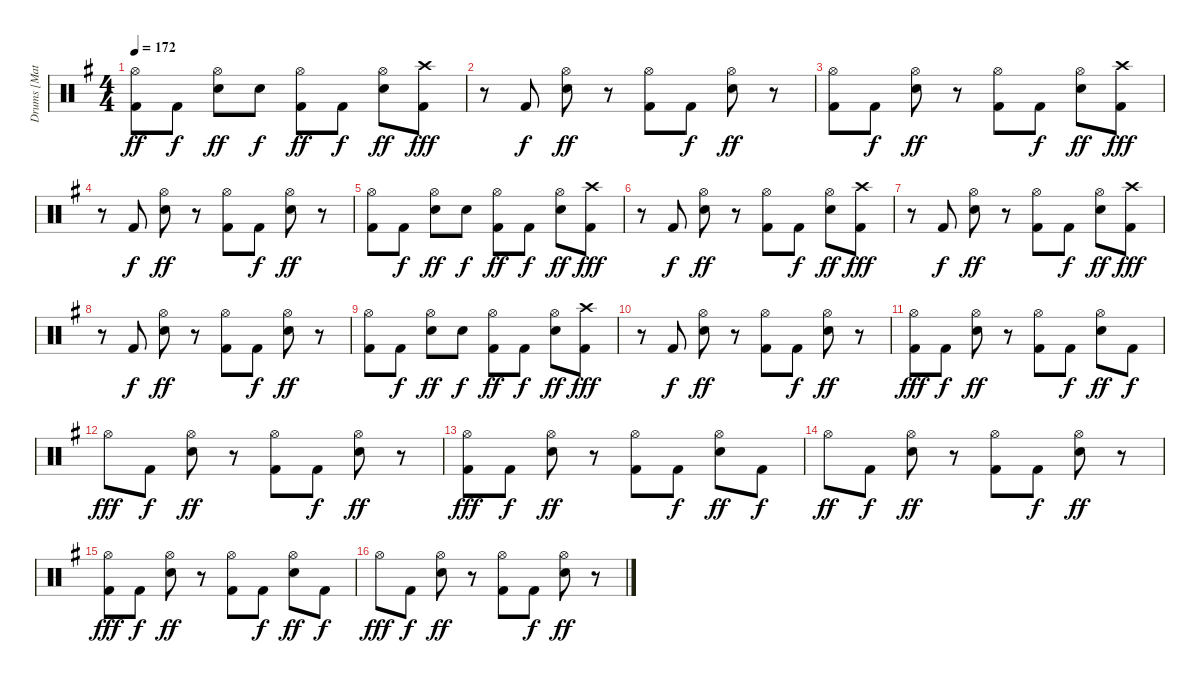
\track ("Drums [Matt]" "Drums [Mat") {instrument percussion}
\staff {score}
\articulation defaults
\ts (4 4)
\tempo 172
\clef neutral
\ks g
("Hi-Hat (open)" "Kick (hit) 2").8{dy ff} "Kick (hit) 2".8{dy f} ("Hi-Hat (open)" "Snare (hit) 2").8{dy ff} "Snare (hit) 2".8{dy f} ("Hi-Hat (open)" "Kick (hit) 2").8{dy ff} "Kick (hit) 2".8{dy f} ("Hi-Hat (open)" "Snare (hit) 2").8{dy ff} ("Kick (hit) 2" "Crash high (hit)").8{dy fff} |
r.8 "Kick (hit) 2".8{dy f} ("Hi-Hat (open)" "Snare (hit) 2").8{dy ff} r.8 ("Hi-Hat (open)" "Kick (hit) 2").8 "Kick (hit) 2".8{dy f} ("Hi-Hat (open)" "Snare (hit) 2").8{dy ff} r.8 |
("Hi-Hat (open)" "Kick (hit) 2").8 "Kick (hit) 2".8{dy f} ("Hi-Hat (open)" "Snare (hit) 2").8{dy ff} r.8 ("Hi-Hat (open)" "Kick (hit) 2").8 "Kick (hit) 2".8{dy f} ("Hi-Hat (open)" "Snare (hit) 2").8{dy ff} ("Kick (hit) 2" "Crash high (hit)").8{dy fff} |
r.8 "Kick (hit) 2".8{dy f} ("Hi-Hat (open)" "Snare (hit) 2").8{dy ff} r.8 ("Hi-Hat (open)" "Kick (hit) 2").8 "Kick (hit) 2".8{dy f} ("Hi-Hat (open)" "Snare (hit) 2").8{dy ff} r.8 |
("Hi-Hat (open)" "Kick (hit) 2").8 "Kick (hit) 2".8{dy f} ("Hi-Hat (open)" "Snare (hit) 2").8{dy ff} "Snare (hit) 2".8{dy f} ("Hi-Hat (open)" "Kick (hit) 2").8{dy ff} "Kick (hit) 2".8{dy f} ("Hi-Hat (open)" "Snare (hit) 2").8{dy ff} ("Kick (hit) 2" "Crash high (hit)").8{dy fff} |
r.8 "Kick (hit) 2".8{dy f} ("Hi-Hat (open)" "Snare (hit) 2").8{dy ff} r.8 ("Hi-Hat (open)" "Kick (hit) 2").8 "Kick (hit) 2".8{dy f} ("Hi-Hat (open)" "Snare (hit) 2").8{dy ff} ("Kick (hit) 2" "Crash high (hit)").8{dy fff} |
r.8 "Kick (hit) 2".8{dy f} ("Hi-Hat (open)" "Snare (hit) 2").8{dy ff} r.8 ("Hi-Hat (open)" "Kick (hit) 2").8 "Kick (hit) 2".8{dy f} ("Hi-Hat (open)" "Snare (hit) 2").8{dy ff} ("Kick (hit) 2" "Crash high (hit)").8{dy fff} |
r.8 "Kick (hit) 2".8{dy f} ("Hi-Hat (open)" "Snare (hit) 2").8{dy ff} r.8 ("Hi-Hat (open)" "Kick (hit) 2").8 "Kick (hit) 2".8{dy f} ("Hi-Hat (open)" "Snare (hit) 2").8{dy ff} r.8 |
("Hi-Hat (open)" "Kick (hit) 2").8 "Kick (hit) 2".8{dy f} ("Hi-Hat (open)" "Snare (hit) 2").8{dy ff} "Snare (hit) 2".8{dy f} ("Hi-Hat (open)" "Kick (hit) 2").8{dy ff} "Kick (hit) 2".8{dy f} ("Hi-Hat (open)" "Snare (hit) 2").8{dy ff} ("Kick (hit) 2" "Crash high (hit)").8{dy fff} |
r.8 "Kick (hit) 2".8{dy f} ("Hi-Hat (open)" "Snare (hit) 2").8{dy ff} r.8 ("Hi-Hat (open)" "Kick (hit) 2").8 "Kick (hit) 2".8{dy f} ("Hi-Hat (open)" "Snare (hit) 2").8{dy ff} r.8 |
("Hi-Hat (open)" "Kick (hit) 2").8{dy fff} "Kick (hit) 2".8{dy f} ("Hi-Hat (open)" "Snare (hit) 2").8{dy ff} r.8 ("Hi-Hat (open)" "Kick (hit) 2").8 "Kick (hit) 2".8{dy f} ("Hi-Hat (open)" "Snare (hit) 2").8{dy ff} "Kick (hit) 2".8{dy f} |
"Hi-Hat (open)".8{dy fff} "Kick (hit) 2".8{dy f} ("Hi-Hat (open)" "Snare (hit) 2").8{dy ff} r.8 ("Hi-Hat (open)" "Kick (hit) 2").8 "Kick (hit) 2".8{dy f} ("Hi-Hat (open)" "Snare (hit) 2").8{dy ff} r.8 |
("Hi-Hat (open)" "Kick (hit) 2").8{dy fff} "Kick (hit) 2".8{dy f} ("Hi-Hat (open)" "Snare (hit) 2").8{dy ff} r.8 ("Hi-Hat (open)" "Kick (hit) 2").8 "Kick (hit) 2".8{dy f} ("Hi-Hat (open)" "Snare (hit) 2").8{dy ff} "Kick (hit) 2".8{dy f} |
"Hi-Hat (open)".8{dy ff} "Kick (hit) 2".8{dy f} ("Hi-Hat (open)" "Snare (hit) 2").8{dy ff} r.8 ("Hi-Hat (open)" "Kick (hit) 2").8 "Kick (hit) 2".8{dy f} ("Hi-Hat (open)" "Snare (hit) 2").8{dy ff} r.8 |
("Hi-Hat (open)" "Kick (hit) 2").8{dy fff} "Kick (hit) 2".8{dy f} ("Hi-Hat (open)" "Snare (hit) 2").8{dy ff} r.8 ("Hi-Hat (open)" "Kick (hit) 2").8 "Kick (hit) 2".8{dy f} ("Hi-Hat (open)" "Snare (hit) 2").8{dy ff} "Kick (hit) 2".8{dy f} |
"Hi-Hat (open)".8{dy fff} "Kick (hit) 2".8{dy f} ("Hi-Hat (open)" "Snare (hit) 2").8{dy ff} r.8 ("Hi-Hat (open)" "Kick (hit) 2").8 "Kick (hit) 2".8{dy f} ("Hi-Hat (open)" "Snare (hit) 2").8{dy ff} r.8
